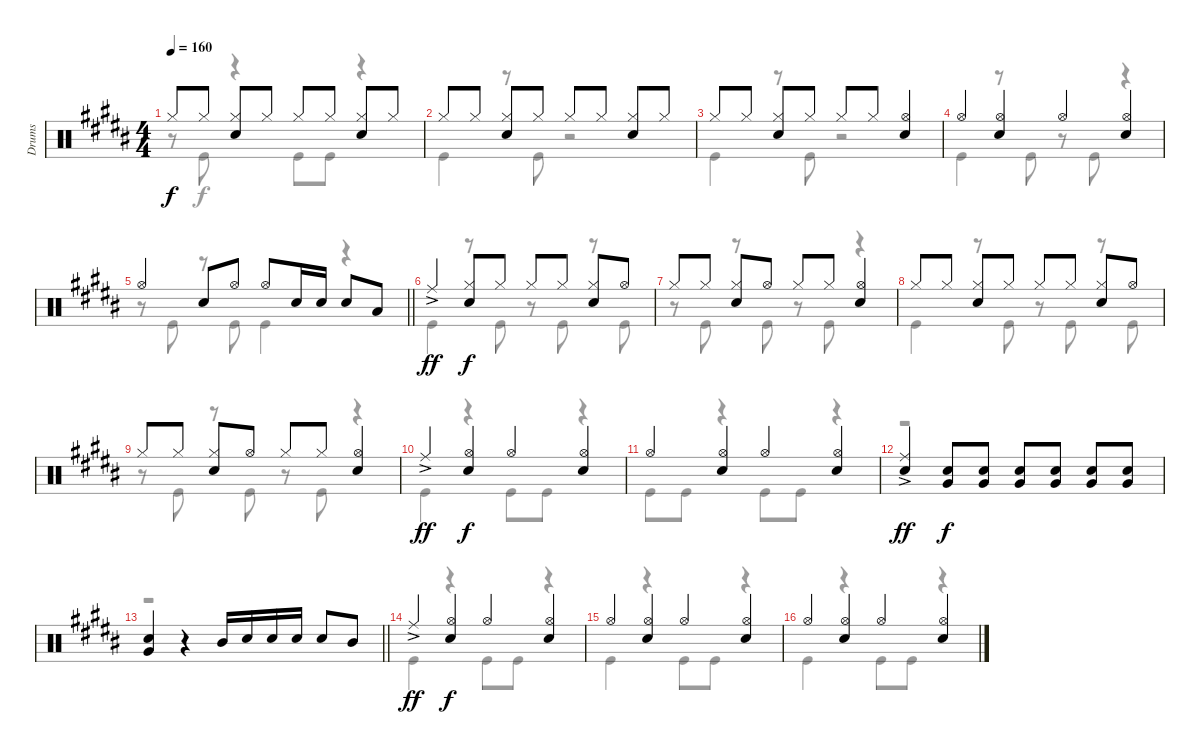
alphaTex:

\track ("Drums" "Drums") {instrument percussion}
\staff {score}
\articulation defaults
\voice
\ts (4 4)
\tempo 160
\clef neutral
\ks b "Hi-Hat (closed)".8{dy f} "Hi-Hat (closed)".8
("Hi-Hat (closed)" "Snare (hit) 2").8 "Hi-Hat (closed)".8 "Hi-Hat (closed)".8 "Hi-Hat (closed)".8 ("Hi-Hat (closed)" "Snare (hit) 2").8 "Hi-Hat (closed)".8 |
"Hi-Hat (closed)".8 "Hi-Hat (closed)".8 ("Hi-Hat (closed)" "Snare (hit) 2").8 "Hi-Hat (closed)".8 "Hi-Hat (closed)".8 "Hi-Hat (closed)".8 ("Hi-Hat (closed)" "Snare (hit) 2").8 "Hi-Hat (closed)".8 |
"Hi-Hat (closed)".8 "Hi-Hat (closed)".8 ("Hi-Hat (closed)" "Snare (hit) 2").8 "Hi-Hat (closed)".8 "Hi-Hat (closed)".8 "Hi-Hat (closed)".8 ("Hi-Hat (open)" "Snare (hit) 2").4 |
"Hi-Hat (open)".4 ("Hi-Hat (open)" "Snare (hit) 2").4 "Hi-Hat (open)".4 ("Hi-Hat (open)" "Snare (hit) 2").4 |
\barLineRight lightlight "Hi-Hat (open)".4 "Snare (hit) 2".8 "Hi-Hat (open)".8 "Hi-Hat (open)".8 "Snare (hit) 2".16 "Snare (hit) 2".16 "Snare (hit) 2".8 "Low Tom (hit)".8
|
"Ride (middle)"{ac}.4{dy ff} ("Hi-Hat (closed)" "Snare (hit) 2").8{dy f} "Hi-Hat (closed)".8 "Hi-Hat (closed)".8 "Hi-Hat (closed)".8 ("Hi-Hat (closed)" "Snare (hit) 2").8 "Hi-Hat (open)".8 |
"Hi-Hat (closed)".8 "Hi-Hat (closed)".8 ("Hi-Hat (closed)" "Snare (hit) 2").8 "Hi-Hat (open)".8 "Hi-Hat (closed)".8 "Hi-Hat (closed)".8 ("Hi-Hat (open)" "Snare (hit) 2").4 |
"Hi-Hat (closed)".8 "Hi-Hat (closed)".8 ("Hi-Hat (closed)" "Snare (hit) 2").8 "Hi-Hat (closed)".8 "Hi-Hat (closed)".8 "Hi-Hat (closed)".8 ("Hi-Hat (closed)" "Snare (hit) 2").8 "Hi-Hat (open)".8 |
"Hi-Hat (closed)".8 "Hi-Hat (closed)".8 ("Hi-Hat (closed)" "Snare (hit) 2").8 "Hi-Hat (open)".8 "Hi-Hat (closed)".8 "Hi-Hat (closed)".8 ("Hi-Hat (open)" "Snare (hit) 2").4 |
"Ride (middle)"{ac}.4{dy ff} ("Hi-Hat (open)" "Snare (hit) 2").4{dy f} "Hi-Hat (open)".4 ("Hi-Hat (open)" "Snare (hit) 2").4 |
"Hi-Hat (open)".4 ("Hi-Hat (open)" "Snare (hit) 2").4 "Hi-Hat (open)".4 ("Hi-Hat (open)" "Snare (hit) 2").4 |
("Ride (middle)"{ac} "Snare (hit) 2").4{dy ff} ("Snare (hit) 2" "Very Low Tom (hit)").8{dy f} ("Snare (hit) 2" "Very Low Tom (hit)").8 ("Snare (hit) 2" "Very Low Tom (hit)").8 ("Snare (hit) 2" "Very Low Tom (hit)").8 ("Snare (hit) 2" "Very Low Tom (hit)").8 ("Snare (hit) 2" "Very Low Tom (hit)").8 |
\barLineRight lightlight
("Snare (hit) 2" "Very Low Tom (hit)").4 r.4 "Mid Tom (hit)".16 "Snare (hit) 2".16 "Snare (hit) 2".16 "Snare (hit) 2".16 "Snare (hit) 2".8 "Mid Tom (hit)".8 |
"Ride (middle)"{ac}.4{dy ff} ("Hi-Hat (open)" "Snare (hit) 2").4{dy f} "Hi-Hat (open)".4 ("Hi-Hat (open)" "Snare (hit) 2").4 |
"Hi-Hat (open)".4 ("Hi-Hat (open)" "Snare (hit) 2").4 "Hi-Hat (open)".4 ("Hi-Hat (open)" "Snare (hit) 2").4 |
"Hi-Hat (open)".4 ("Hi-Hat (open)" "Snare (hit) 2").4 "Hi-Hat (open)".4 ("Hi-Hat (open)" "Snare (hit) 2").4
\voice
\clef neutral
\ottava regular
\simile none
\ks b
r.8{dy f} "Kick (hit)".8 r.4 "Kick (hit)".8 "Kick (hit)".8 r.4 |
"Kick (hit)".4 r.8 "Kick (hit)".8 r.2 |
"Kick (hit)".4 r.8 "Kick (hit)".8 r.2 |
"Kick (hit)".4 r.8 "Kick (hit)".8 r.8 "Kick (hit)".8 r.4 |
\barLineRight lightlight
r.8 "Kick (hit)".8 r.8 "Kick (hit)".8 "Kick (hit)".4 r.4 |
"Kick (hit)".4 r.8 "Kick (hit)".8 r.8 "Kick (hit)".8 r.8 "Kick (hit)".8 |
r.8 "Kick (hit)".8 r.8 "Kick (hit)".8 r.8 "Kick (hit)".8 r.4 |
"Kick (hit)".4 r.8 "Kick (hit)".8 r.8 "Kick (hit)".8 r.8 "Kick (hit)".8 |
r.8 "Kick (hit)".8 r.8 "Kick (hit)".8 r.8 "Kick (hit)".8 r.4 |
"Kick (hit)".4 r.4 "Kick (hit)".8 "Kick (hit)".8 r.4 |
"Kick (hit)".8 "Kick (hit)".8 r.4 "Kick (hit)".8 "Kick (hit)".8 r.4 |
r.1 |
\barLineRight lightlight
r.1 |
"Kick (hit)".4 r.4 "Kick (hit)".8 "Kick (hit)".8 r.4 |
"Kick (hit)".4 r.4 "Kick (hit)".8 "Kick (hit)".8 r.4 |
"Kick (hit)".4 r.4 "Kick (hit)".8 "Kick (hit)".8 r.4
